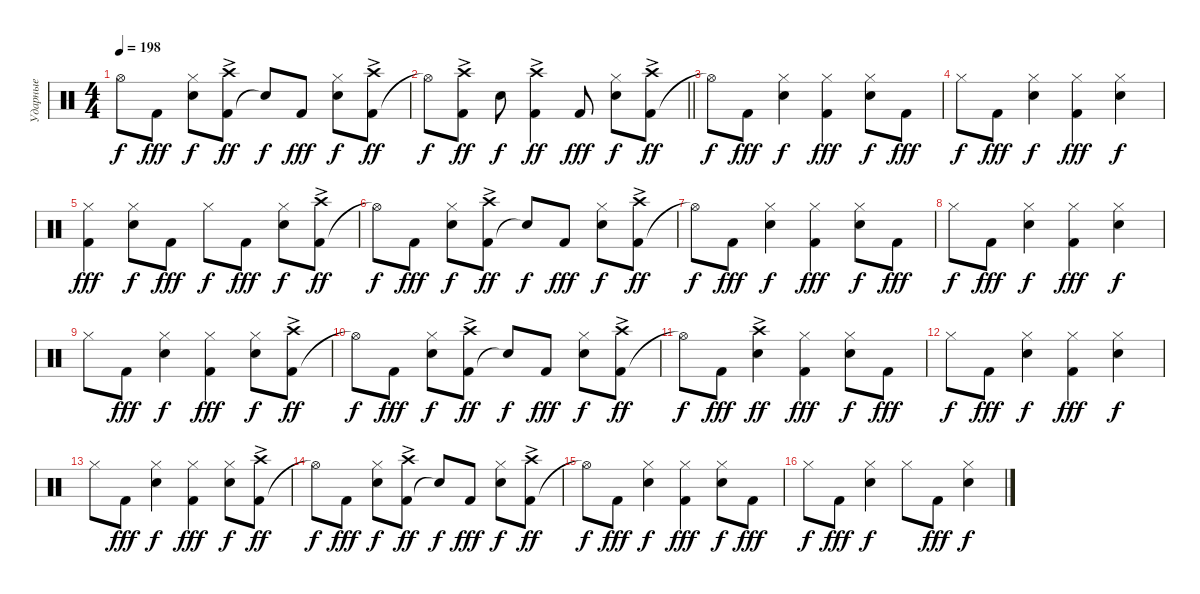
\track ("Ударные" "Ударные") {instrument percussion}
\staff {score}
\articulation defaults
\ts (4 4)
\tempo 198
\clef neutral
\ks c "Hi-Hat (open)"{t}.8{dy f} "Kick (hit) 2".8{dy fff}
("Snare (hit) 2" "Hi-Hat (closed)").8{dy f} ("Kick (hit) 2" "Crash high (hit)"{ac}).8{dy ff} "Snare (hit)"{t}.8{dy f} "Kick (hit) 2".8{dy fff} ("Snare (hit) 2" "Hi-Hat (closed)").8{dy f} ("Kick (hit) 2" "Crash high (hit)"{ac}).8{dy ff} |
\barLineRight lightlight "Hi-Hat (open)"{t}.8{dy f}
("Kick (hit) 2" "Crash high (hit)"{ac}).8{dy ff} "Snare (hit) 2".8{dy f} ("Kick (hit) 2" "Crash high (hit)"{ac}).4{dy ff} "Kick (hit) 2".8{dy fff} ("Snare (hit) 2" "Hi-Hat (closed)").8{dy f} ("Kick (hit) 2" "Crash high (hit)"{ac}).8{dy ff} |
"Hi-Hat (open)"{t}.8{dy f} "Kick (hit) 2".8{dy fff} ("Snare (hit) 2" "Hi-Hat (closed)").4{dy f} ("Kick (hit) 2" "Hi-Hat (closed)").4{dy fff} ("Snare (hit) 2" "Hi-Hat (closed)").8{dy f} "Kick (hit) 2".8{dy fff} |
"Hi-Hat (closed)".8{dy f} "Kick (hit) 2".8{dy fff} ("Snare (hit) 2" "Hi-Hat (closed)").4{dy f} ("Kick (hit) 2" "Hi-Hat (closed)").4{dy fff} ("Snare (hit) 2" "Hi-Hat (closed)").4{dy f} |
("Kick (hit) 2" "Hi-Hat (closed)").4{dy fff} ("Snare (hit) 2" "Hi-Hat (closed)").8{dy f} "Kick (hit) 2".8{dy fff} "Hi-Hat (closed)".8{dy f} "Kick (hit) 2".8{dy fff} ("Snare (hit) 2" "Hi-Hat (closed)").8{dy f} ("Kick (hit) 2" "Crash high (hit)"{ac}).8{dy ff} |
"Hi-Hat (open)"{t}.8{dy f} "Kick (hit) 2".8{dy fff} ("Snare (hit) 2" "Hi-Hat (closed)").8{dy f} ("Kick (hit) 2" "Crash high (hit)"{ac}).8{dy ff} "Snare (hit)"{t}.8{dy f} "Kick (hit) 2".8{dy fff} ("Snare (hit) 2" "Hi-Hat (closed)").8{dy f} ("Kick (hit) 2" "Crash high (hit)"{ac}).8{dy ff} |
"Hi-Hat (open)"{t}.8{dy f} "Kick (hit) 2".8{dy fff} ("Snare (hit) 2" "Hi-Hat (closed)").4{dy f} ("Kick (hit) 2" "Hi-Hat (closed)").4{dy fff} ("Snare (hit) 2" "Hi-Hat (closed)").8{dy f} "Kick (hit) 2".8{dy fff} |
"Hi-Hat (closed)".8{dy f} "Kick (hit) 2".8{dy fff} ("Snare (hit) 2" "Hi-Hat (closed)").4{dy f} ("Kick (hit) 2" "Hi-Hat (closed)").4{dy fff} ("Snare (hit) 2" "Hi-Hat (closed)").4{dy f} |
"Hi-Hat (closed)".8 "Kick (hit) 2".8{dy fff} ("Snare (hit) 2" "Hi-Hat (closed)").4{dy f} ("Kick (hit) 2" "Hi-Hat (closed)").4{dy fff} ("Snare (hit) 2" "Hi-Hat (closed)").8{dy f} ("Kick (hit) 2" "Crash high (hit)"{ac}).8{dy ff} |
"Hi-Hat (open)"{t}.8{dy f} "Kick (hit) 2".8{dy fff} ("Snare (hit) 2" "Hi-Hat (closed)").8{dy f} ("Kick (hit) 2" "Crash high (hit)"{ac}).8{dy ff} "Snare (hit)"{t}.8{dy f} "Kick (hit) 2".8{dy fff} ("Snare (hit) 2" "Hi-Hat (closed)").8{dy f} ("Kick (hit) 2" "Crash high (hit)"{ac}).8{dy ff} |
"Hi-Hat (open)"{t}.8{dy f} "Kick (hit) 2".8{dy fff} ("Snare (hit) 2" "Crash high (hit)"{ac}).4{dy ff} ("Kick (hit) 2" "Hi-Hat (closed)").4{dy fff} ("Snare (hit) 2" "Hi-Hat (closed)").8{dy f} "Kick (hit) 2".8{dy fff} |
"Hi-Hat (closed)".8{dy f} "Kick (hit) 2".8{dy fff} ("Snare (hit) 2" "Hi-Hat (closed)").4{dy f} ("Kick (hit) 2" "Hi-Hat (closed)").4{dy fff} ("Snare (hit) 2" "Hi-Hat (closed)").4{dy f} |
"Hi-Hat (closed)".8 "Kick (hit) 2".8{dy fff} ("Snare (hit) 2" "Hi-Hat (closed)").4{dy f} ("Kick (hit) 2" "Hi-Hat (closed)").4{dy fff} ("Snare (hit) 2" "Hi-Hat (closed)").8{dy f} ("Kick (hit) 2" "Crash high (hit)"{ac}).8{dy ff} |
"Hi-Hat (open)"{t}.8{dy f} "Kick (hit) 2".8{dy fff} ("Snare (hit) 2" "Hi-Hat (closed)").8{dy f} ("Kick (hit) 2" "Crash high (hit)"{ac}).8{dy ff} "Snare (hit)"{t}.8{dy f} "Kick (hit) 2".8{dy fff} ("Snare (hit) 2" "Hi-Hat (closed)").8{dy f} ("Kick (hit) 2" "Crash high (hit)"{ac}).8{dy ff} |
"Hi-Hat (open)"{t}.8{dy f} "Kick (hit) 2".8{dy fff} ("Snare (hit) 2" "Hi-Hat (closed)").4{dy f} ("Kick (hit) 2" "Hi-Hat (closed)").4{dy fff} ("Snare (hit) 2" "Hi-Hat (closed)").8{dy f} "Kick (hit) 2".8{dy fff} |
"Hi-Hat (closed)".8{dy f} "Kick (hit) 2".8{dy fff} ("Snare (hit) 2" "Hi-Hat (closed)").4{dy f} "Hi-Hat (closed)".8 "Kick (hit) 2".8{dy fff} ("Snare (hit) 2" "Hi-Hat (closed)").4{dy f}
